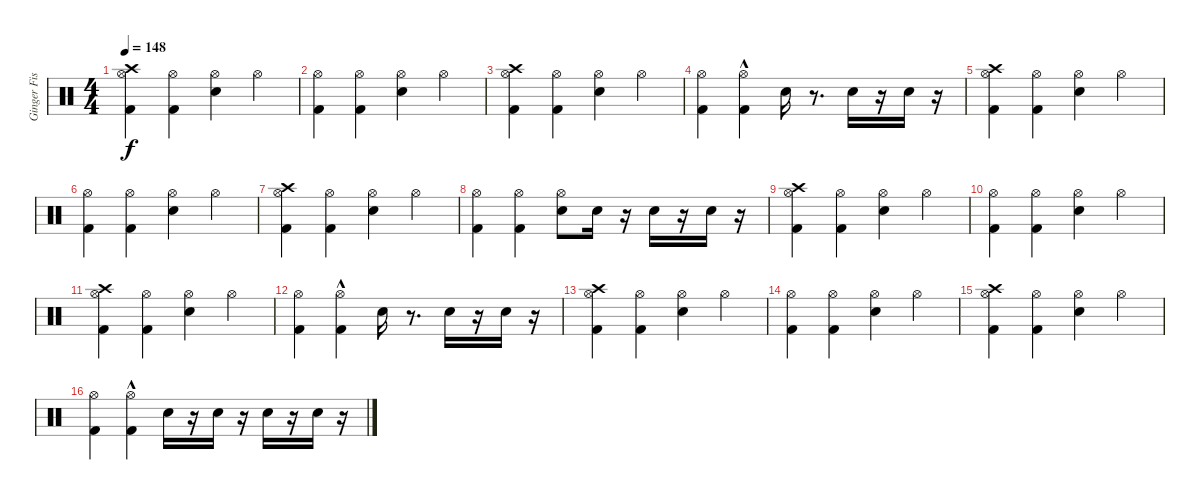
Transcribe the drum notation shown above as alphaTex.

\track ("Ginger Fish (Drums)" "Ginger Fis") {instrument percussion}
\staff {score}
\articulation defaults
\ts (4 4)
\tempo 148
\clef neutral
\ks c
("Hi-Hat (open)" "Kick (hit) 2" "Crash high (hit)").4{dy f} ("Kick (hit) 2" "Hi-Hat (open)").4 ("Hi-Hat (open)" "Snare (hit) 2").4 "Hi-Hat (open)".4 |
("Hi-Hat (open)" "Kick (hit) 2").4 ("Hi-Hat (open)" "Kick (hit) 2").4 ("Hi-Hat (open)" "Snare (hit) 2").4 "Hi-Hat (open)".4 |
("Crash high (hit)" "Hi-Hat (open)" "Kick (hit) 2").4 ("Hi-Hat (open)" "Kick (hit) 2").4 ("Hi-Hat (open)" "Snare (hit) 2").4 "Hi-Hat (open)".4 |
("Hi-Hat (open)" "Kick (hit) 2").4 ("Hi-Hat (open)"{hac} "Kick (hit) 2").4 "Snare (hit) 2".16 r.8{d} "Snare (hit) 2".16 r.16 "Snare (hit) 2".16 r.16 |
("Hi-Hat (open)" "Kick (hit) 2" "Crash high (hit)").4 ("Kick (hit) 2" "Hi-Hat (open)").4 ("Hi-Hat (open)" "Snare (hit) 2").4 "Hi-Hat (open)".4 |
("Hi-Hat (open)" "Kick (hit) 2").4 ("Hi-Hat (open)" "Kick (hit) 2").4 ("Hi-Hat (open)" "Snare (hit) 2").4 "Hi-Hat (open)".4 |
("Crash high (hit)" "Hi-Hat (open)" "Kick (hit) 2").4 ("Hi-Hat (open)" "Kick (hit) 2").4 ("Hi-Hat (open)" "Snare (hit) 2").4 "Hi-Hat (open)".4 |
("Hi-Hat (open)" "Kick (hit) 2").4 ("Hi-Hat (open)" "Kick (hit) 2").4 ("Hi-Hat (open)" "Snare (hit) 2").8 "Snare (hit) 2".16 r.16 "Snare (hit) 2".16 r.16 "Snare (hit) 2".16 r.16 |
("Hi-Hat (open)" "Kick (hit) 2" "Crash high (hit)").4 ("Kick (hit) 2" "Hi-Hat (open)").4 ("Hi-Hat (open)" "Snare (hit) 2").4 "Hi-Hat (open)".4 |
("Hi-Hat (open)" "Kick (hit) 2").4 ("Hi-Hat (open)" "Kick (hit) 2").4 ("Hi-Hat (open)" "Snare (hit) 2").4 "Hi-Hat (open)".4 |
("Crash high (hit)" "Hi-Hat (open)" "Kick (hit) 2").4 ("Hi-Hat (open)" "Kick (hit) 2").4 ("Hi-Hat (open)" "Snare (hit) 2").4 "Hi-Hat (open)".4 |
("Hi-Hat (open)" "Kick (hit) 2").4 ("Hi-Hat (open)"{hac} "Kick (hit) 2").4 "Snare (hit) 2".16 r.8{d} "Snare (hit) 2".16 r.16 "Snare (hit) 2".16 r.16 |
("Hi-Hat (open)" "Kick (hit) 2" "Crash high (hit)").4 ("Kick (hit) 2" "Hi-Hat (open)").4 ("Hi-Hat (open)" "Snare (hit) 2").4 "Hi-Hat (open)".4 |
("Hi-Hat (open)" "Kick (hit) 2").4 ("Hi-Hat (open)" "Kick (hit) 2").4 ("Hi-Hat (open)" "Snare (hit) 2").4 "Hi-Hat (open)".4 |
("Crash high (hit)" "Hi-Hat (open)" "Kick (hit) 2").4 ("Hi-Hat (open)" "Kick (hit) 2").4 ("Hi-Hat (open)" "Snare (hit) 2").4 "Hi-Hat (open)".4 |
("Hi-Hat (open)" "Kick (hit) 2").4 ("Hi-Hat (open)"{hac} "Kick (hit) 2").4 "Snare (hit) 2".16 r.16 "Snare (hit) 2".16 r.16 "Snare (hit) 2".16 r.16 "Snare (hit) 2".16 r.16
